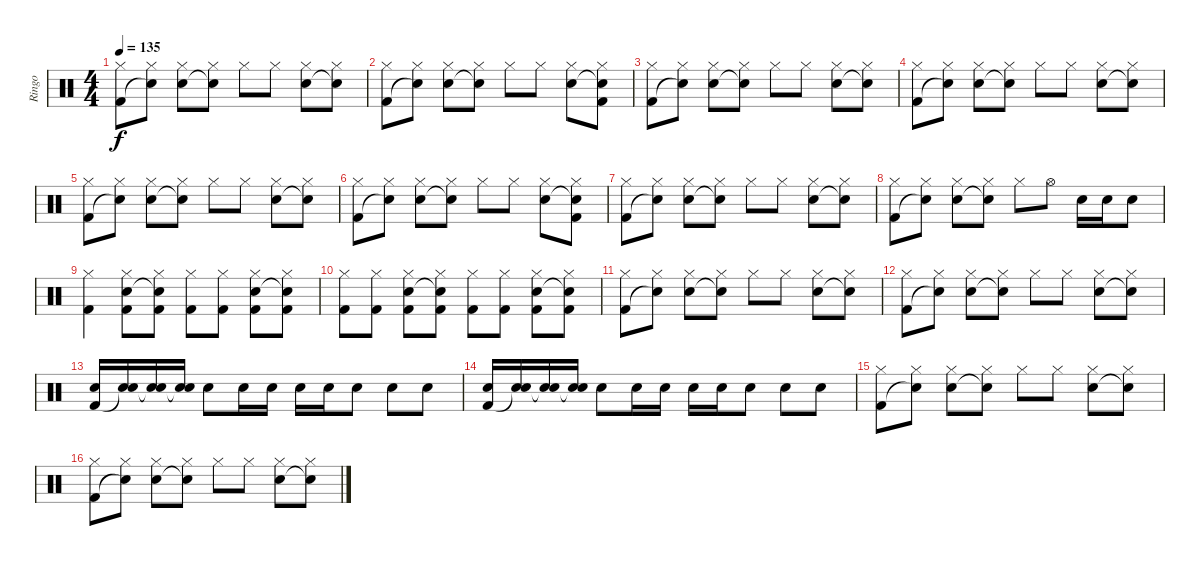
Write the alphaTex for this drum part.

\track ("Ringo" "Ringo") {instrument percussion}
\staff {score}
\articulation defaults
\ts (4 4)
\tempo 135
\clef neutral
\ks c
("Hi-Hat (closed)" "Kick (hit) 2").8{dy f} ("Hi-Hat (closed)" "Snare (hit)"{t}).8 ("Hi-Hat (closed)" "Snare (hit) 2").8 ("Hi-Hat (closed)" "Snare (hit)"{t}).8 "Hi-Hat (closed)".8 "Hi-Hat (closed)".8 ("Hi-Hat (closed)" "Snare (hit) 2").8 ("Hi-Hat (closed)" "Snare (hit)"{t}).8 |
("Hi-Hat (closed)" "Kick (hit) 2").8 ("Hi-Hat (closed)" "Snare (hit)"{t}).8 ("Hi-Hat (closed)" "Snare (hit) 2").8 ("Hi-Hat (closed)" "Snare (hit)"{t}).8 "Hi-Hat (closed)".8 "Hi-Hat (closed)".8 ("Hi-Hat (closed)" "Snare (hit) 2").8 ("Hi-Hat (closed)" "Snare (hit)"{t} "Kick (hit) 2").8 |
("Hi-Hat (closed)" "Kick (hit) 2").8 ("Hi-Hat (closed)" "Snare (hit)"{t}).8 ("Hi-Hat (closed)" "Snare (hit) 2").8 ("Hi-Hat (closed)" "Snare (hit)"{t}).8 "Hi-Hat (closed)".8 "Hi-Hat (closed)".8 ("Hi-Hat (closed)" "Snare (hit) 2").8 ("Hi-Hat (closed)" "Snare (hit)"{t}).8 |
("Hi-Hat (closed)" "Kick (hit) 2").8 ("Hi-Hat (closed)" "Snare (hit)"{t}).8 ("Hi-Hat (closed)" "Snare (hit) 2").8 ("Hi-Hat (closed)" "Snare (hit)"{t}).8 "Hi-Hat (closed)".8 "Hi-Hat (closed)".8 ("Hi-Hat (closed)" "Snare (hit) 2").8 ("Hi-Hat (closed)" "Snare (hit)"{t}).8 |
("Hi-Hat (closed)" "Kick (hit) 2").8 ("Hi-Hat (closed)" "Snare (hit)"{t}).8 ("Hi-Hat (closed)" "Snare (hit) 2").8 ("Hi-Hat (closed)" "Snare (hit)"{t}).8 "Hi-Hat (closed)".8 "Hi-Hat (closed)".8 ("Hi-Hat (closed)" "Snare (hit) 2").8 ("Hi-Hat (closed)" "Snare (hit)"{t}).8 |
("Hi-Hat (closed)" "Kick (hit) 2").8 ("Hi-Hat (closed)" "Snare (hit)"{t}).8 ("Hi-Hat (closed)" "Snare (hit) 2").8 ("Hi-Hat (closed)" "Snare (hit)"{t}).8 "Hi-Hat (closed)".8 "Hi-Hat (closed)".8 ("Hi-Hat (closed)" "Snare (hit) 2").8 ("Hi-Hat (closed)" "Snare (hit)"{t} "Kick (hit) 2").8 |
("Hi-Hat (closed)" "Kick (hit) 2").8 ("Hi-Hat (closed)" "Snare (hit)"{t}).8 ("Hi-Hat (closed)" "Snare (hit) 2").8 ("Hi-Hat (closed)" "Snare (hit)"{t}).8 "Hi-Hat (closed)".8 "Hi-Hat (closed)".8 ("Hi-Hat (closed)" "Snare (hit) 2").8 ("Hi-Hat (closed)" "Snare (hit)"{t}).8 |
("Hi-Hat (closed)" "Kick (hit) 2").8 ("Hi-Hat (closed)" "Snare (hit)"{t}).8 ("Hi-Hat (closed)" "Snare (hit) 2").8 ("Hi-Hat (closed)" "Snare (hit)"{t}).8 "Hi-Hat (closed)".8 "Hi-Hat (open)".8 "Snare (hit) 2".16 "Snare (hit) 2".16 "Snare (hit) 2".8 |
("Hi-Hat (closed)" "Kick (hit) 2").4 ("Hi-Hat (closed)" "Snare (hit) 2" "Kick (hit) 2").8 ("Hi-Hat (closed)" "Snare (hit)"{t} "Kick (hit) 2").8 ("Hi-Hat (closed)" "Kick (hit) 2").8 ("Hi-Hat (closed)" "Kick (hit) 2").8 ("Hi-Hat (closed)" "Snare (hit) 2" "Kick (hit) 2").8 ("Hi-Hat (closed)" "Snare (hit)"{t} "Kick (hit) 2").8 |
("Hi-Hat (closed)" "Kick (hit) 2").8 ("Hi-Hat (closed)" "Kick (hit) 2").8 ("Hi-Hat (closed)" "Snare (hit) 2" "Kick (hit) 2").8 ("Hi-Hat (closed)" "Snare (hit)"{t} "Kick (hit) 2").8 ("Hi-Hat (closed)" "Kick (hit) 2").8 ("Hi-Hat (closed)" "Kick (hit) 2").8 ("Hi-Hat (closed)" "Snare (hit) 2" "Kick (hit) 2").8 ("Hi-Hat (closed)" "Snare (hit)"{t} "Kick (hit) 2").8 |
("Hi-Hat (closed)" "Kick (hit) 2").8 ("Hi-Hat (closed)" "Snare (hit)"{t}).8 ("Hi-Hat (closed)" "Snare (hit) 2").8 ("Hi-Hat (closed)" "Snare (hit)"{t}).8 "Hi-Hat (closed)".8 "Hi-Hat (closed)".8 ("Hi-Hat (closed)" "Snare (hit) 2").8 ("Hi-Hat (closed)" "Snare (hit)"{t}).8 |
("Hi-Hat (closed)" "Kick (hit) 2").8 ("Hi-Hat (closed)" "Snare (hit)"{t}).8 ("Hi-Hat (closed)" "Snare (hit) 2").8 ("Hi-Hat (closed)" "Snare (hit)"{t}).8 "Hi-Hat (closed)".8 "Hi-Hat (closed)".8 ("Hi-Hat (closed)" "Snare (hit) 2").8 ("Hi-Hat (closed)" "Snare (hit)"{t}).8 |
("Snare (hit) 2" "Kick (hit) 2").16{volume 15 balance 4} ("Snare (hit) 2" "Snare (hit)"{t}).16 ("Snare (hit) 2" "Snare (hit)"{t}).16 ("Snare (hit) 2" "Snare (hit)"{t}).16 "Snare (hit) 2".8{balance 6} "Snare (hit) 2".16 "Snare (hit) 2".16 "Snare (hit) 2".16{balance 10} "Snare (hit) 2".16 "Snare (hit) 2".8 "Snare (hit) 2".8{balance 12} "Snare (hit) 2".8 |
("Snare (hit) 2" "Kick (hit) 2").16{volume 15 balance 4} ("Snare (hit) 2" "Snare (hit)"{t}).16 ("Snare (hit) 2" "Snare (hit)"{t}).16 ("Snare (hit) 2" "Snare (hit)"{t}).16 "Snare (hit) 2".8{balance 6} "Snare (hit) 2".16 "Snare (hit) 2".16 "Snare (hit) 2".16{balance 10} "Snare (hit) 2".16 "Snare (hit) 2".8 "Snare (hit) 2".8{balance 12} "Snare (hit) 2".8 |
("Hi-Hat (closed)" "Kick (hit) 2").8 ("Hi-Hat (closed)" "Snare (hit)"{t}).8 ("Hi-Hat (closed)" "Snare (hit) 2").8 ("Hi-Hat (closed)" "Snare (hit)"{t}).8 "Hi-Hat (closed)".8 "Hi-Hat (closed)".8 ("Hi-Hat (closed)" "Snare (hit) 2").8 ("Hi-Hat (closed)" "Snare (hit)"{t}).8 |
("Hi-Hat (closed)" "Kick (hit) 2").8 ("Hi-Hat (closed)" "Snare (hit)"{t}).8 ("Hi-Hat (closed)" "Snare (hit) 2").8 ("Hi-Hat (closed)" "Snare (hit)"{t}).8 "Hi-Hat (closed)".8 "Hi-Hat (closed)".8 ("Hi-Hat (closed)" "Snare (hit) 2").8 ("Hi-Hat (closed)" "Snare (hit)"{t}).8
